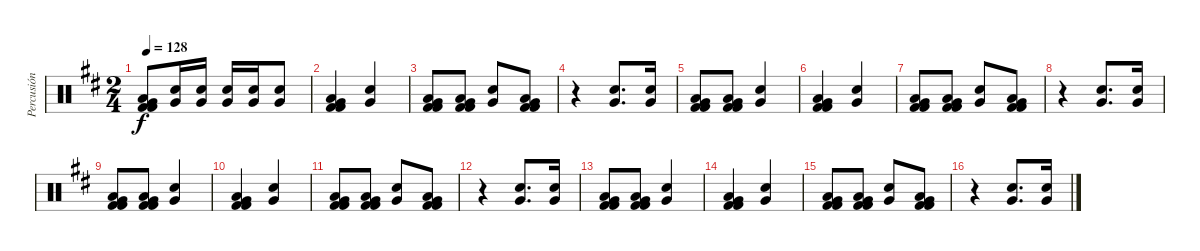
\track ("Percusión" "Percusión") {instrument percussion}
\staff {score}
\articulation defaults
\ts (2 4)
\tempo 128
\clef neutral
\ks d
("Kick (hit) 2" "Low Floor Tom (hit)" "Kick (hit) 2" "Very Low Tom (hit)").8{dy f} ("Electric Snare (hit)" "Very Low Tom (hit)").16 ("Very Low Tom (hit)" "Snare (hit) 2").16 ("Electric Snare (hit)" "Very Low Tom (hit)").16 ("Very Low Tom (hit)" "Snare (hit) 2").16 ("Electric Snare (hit)" "Very Low Tom (hit)").8 |
("Kick (hit) 2" "Low Floor Tom (hit)" "Kick (hit) 2" "Very Low Tom (hit)").4 ("Electric Snare (hit)" "Very Low Tom (hit)").4 |
("Kick (hit) 2" "Low Floor Tom (hit)" "Kick (hit) 2" "Very Low Tom (hit)").8 ("Kick (hit) 2" "Low Floor Tom (hit)" "Kick (hit) 2" "Very Low Tom (hit)").8 ("Electric Snare (hit)" "Very Low Tom (hit)").8 ("Kick (hit) 2" "Low Floor Tom (hit)" "Kick (hit) 2" "Very Low Tom (hit)").8 |
r.4 ("Electric Snare (hit)" "Very Low Tom (hit)").8{d} ("Electric Snare (hit)" "Very Low Tom (hit)").16 |
("Kick (hit) 2" "Low Floor Tom (hit)" "Kick (hit) 2" "Very Low Tom (hit)").8 ("Kick (hit) 2" "Low Floor Tom (hit)" "Kick (hit) 2" "Very Low Tom (hit)").8 ("Electric Snare (hit)" "Very Low Tom (hit)").4 |
("Kick (hit) 2" "Low Floor Tom (hit)" "Kick (hit) 2" "Very Low Tom (hit)").4 ("Electric Snare (hit)" "Very Low Tom (hit)").4 |
("Kick (hit) 2" "Low Floor Tom (hit)" "Kick (hit) 2" "Very Low Tom (hit)").8 ("Kick (hit) 2" "Low Floor Tom (hit)" "Kick (hit) 2" "Very Low Tom (hit)").8 ("Electric Snare (hit)" "Very Low Tom (hit)").8 ("Kick (hit) 2" "Low Floor Tom (hit)" "Kick (hit) 2" "Very Low Tom (hit)").8 |
r.4 ("Electric Snare (hit)" "Very Low Tom (hit)").8{d} ("Electric Snare (hit)" "Very Low Tom (hit)").16 |
("Kick (hit) 2" "Low Floor Tom (hit)" "Kick (hit) 2" "Very Low Tom (hit)").8 ("Kick (hit) 2" "Low Floor Tom (hit)" "Kick (hit) 2" "Very Low Tom (hit)").8 ("Electric Snare (hit)" "Very Low Tom (hit)").4 |
("Kick (hit) 2" "Low Floor Tom (hit)" "Kick (hit) 2" "Very Low Tom (hit)").4 ("Electric Snare (hit)" "Very Low Tom (hit)").4 |
("Kick (hit) 2" "Low Floor Tom (hit)" "Kick (hit) 2" "Very Low Tom (hit)").8 ("Kick (hit) 2" "Low Floor Tom (hit)" "Kick (hit) 2" "Very Low Tom (hit)").8 ("Electric Snare (hit)" "Very Low Tom (hit)").8 ("Kick (hit) 2" "Low Floor Tom (hit)" "Kick (hit) 2" "Very Low Tom (hit)").8 |
r.4 ("Electric Snare (hit)" "Very Low Tom (hit)").8{d} ("Electric Snare (hit)" "Very Low Tom (hit)").16 |
("Kick (hit) 2" "Low Floor Tom (hit)" "Kick (hit) 2" "Very Low Tom (hit)").8 ("Kick (hit) 2" "Low Floor Tom (hit)" "Kick (hit) 2" "Very Low Tom (hit)").8 ("Electric Snare (hit)" "Very Low Tom (hit)").4 |
("Kick (hit) 2" "Low Floor Tom (hit)" "Kick (hit) 2" "Very Low Tom (hit)").4 ("Electric Snare (hit)" "Very Low Tom (hit)").4 |
("Kick (hit) 2" "Low Floor Tom (hit)" "Kick (hit) 2" "Very Low Tom (hit)").8 ("Kick (hit) 2" "Low Floor Tom (hit)" "Kick (hit) 2" "Very Low Tom (hit)").8 ("Electric Snare (hit)" "Very Low Tom (hit)").8 ("Kick (hit) 2" "Low Floor Tom (hit)" "Kick (hit) 2" "Very Low Tom (hit)").8 |
r.4 ("Electric Snare (hit)" "Very Low Tom (hit)").8{d} ("Electric Snare (hit)" "Very Low Tom (hit)").16
